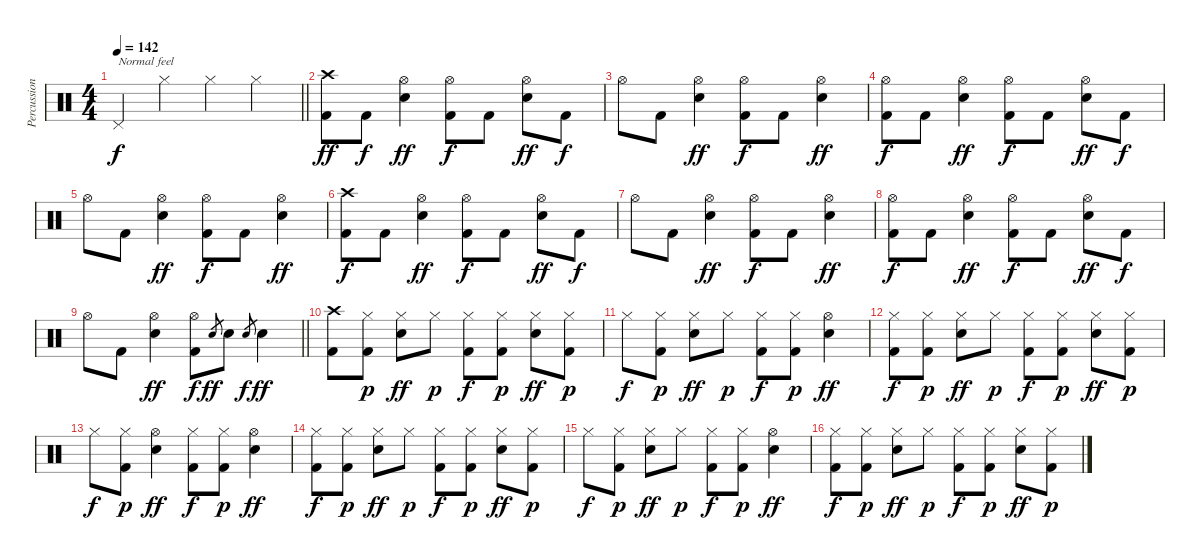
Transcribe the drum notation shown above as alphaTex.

\track ("Percussion" "Percussion") {instrument percussion}
\staff {score}
\articulation defaults
\ts (4 4)
\tempo 142
\clef neutral
\barLineRight lightlight
\ks c "Pedal Hi-Hat (hit)".4{txt "Normal feel" dy f} "Hi-Hat (closed)".4 "Hi-Hat (closed)".4 "Hi-Hat (closed)".4
|
("Crash high (hit)" "Kick (hit) 2").8{dy ff} "Kick (hit) 2".8{dy f} ("Hi-Hat (open)" "Snare (hit) 2").4{dy ff} ("Hi-Hat (open)" "Kick (hit) 2").8{dy f} "Kick (hit) 2".8 ("Hi-Hat (open)" "Snare (hit) 2").8{dy ff} "Kick (hit) 2".8{dy f} |
"Hi-Hat (open)".8 "Kick (hit) 2".8 ("Hi-Hat (open)" "Snare (hit) 2").4{dy ff} ("Hi-Hat (open)" "Kick (hit) 2").8{dy f} "Kick (hit) 2".8 ("Hi-Hat (open)" "Snare (hit) 2").4{dy ff} |
("Hi-Hat (open)" "Kick (hit) 2").8{dy f} "Kick (hit) 2".8 ("Hi-Hat (open)" "Snare (hit) 2").4{dy ff} ("Hi-Hat (open)" "Kick (hit) 2").8{dy f} "Kick (hit) 2".8 ("Hi-Hat (open)" "Snare (hit) 2").8{dy ff} "Kick (hit) 2".8{dy f} |
"Hi-Hat (open)".8 "Kick (hit) 2".8 ("Hi-Hat (open)" "Snare (hit) 2").4{dy ff} ("Hi-Hat (open)" "Kick (hit) 2").8{dy f} "Kick (hit) 2".8 ("Hi-Hat (open)" "Snare (hit) 2").4{dy ff} |
("Crash high (hit)" "Kick (hit) 2").8{dy f} "Kick (hit) 2".8 ("Hi-Hat (open)" "Snare (hit) 2").4{dy ff} ("Hi-Hat (open)" "Kick (hit) 2").8{dy f} "Kick (hit) 2".8 ("Hi-Hat (open)" "Snare (hit) 2").8{dy ff} "Kick (hit) 2".8{dy f} |
"Hi-Hat (open)".8 "Kick (hit) 2".8 ("Hi-Hat (open)" "Snare (hit) 2").4{dy ff} ("Hi-Hat (open)" "Kick (hit) 2").8{dy f} "Kick (hit) 2".8 ("Hi-Hat (open)" "Snare (hit) 2").4{dy ff} |
("Hi-Hat (open)" "Kick (hit) 2").8{dy f} "Kick (hit) 2".8 ("Hi-Hat (open)" "Snare (hit) 2").4{dy ff} ("Hi-Hat (open)" "Kick (hit) 2").8{dy f} "Kick (hit) 2".8 ("Hi-Hat (open)" "Snare (hit) 2").8{dy ff} "Kick (hit) 2".8{dy f} |
\barLineRight lightlight "Hi-Hat (open)".8 "Kick (hit) 2".8
("Hi-Hat (open)" "Snare (hit) 2").4{dy ff} ("Hi-Hat (open)" "Kick (hit) 2").8{dy f} "Snare (hit) 2".8{gr dy ff} "Snare (hit) 2".8 "Snare (hit) 2".8{gr dy f} "Snare (hit) 2".4{dy ff} |
("Crash high (hit)" "Kick (hit) 2").8 ("Hi-Hat (closed)" "Kick (hit) 2").8{dy p} ("Hi-Hat (closed)" "Snare (hit) 2").8{dy ff} "Hi-Hat (closed)".8{dy p} ("Hi-Hat (closed)" "Kick (hit) 2").8{dy f} ("Hi-Hat (closed)" "Kick (hit) 2").8{dy p} ("Hi-Hat (closed)" "Snare (hit) 2").8{dy ff} ("Hi-Hat (closed)" "Kick (hit) 2").8{dy p} |
"Hi-Hat (closed)".8{dy f} ("Hi-Hat (closed)" "Kick (hit) 2").8{dy p} ("Hi-Hat (closed)" "Snare (hit) 2").8{dy ff} "Hi-Hat (closed)".8{dy p} ("Hi-Hat (closed)" "Kick (hit) 2").8{dy f} ("Hi-Hat (closed)" "Kick (hit) 2").8{dy p} ("Hi-Hat (open)" "Snare (hit) 2").4{dy ff} |
("Hi-Hat (closed)" "Kick (hit) 2").8{dy f} ("Hi-Hat (closed)" "Kick (hit) 2").8{dy p} ("Hi-Hat (closed)" "Snare (hit) 2").8{dy ff} "Hi-Hat (closed)".8{dy p} ("Hi-Hat (closed)" "Kick (hit) 2").8{dy f} ("Hi-Hat (closed)" "Kick (hit) 2").8{dy p} ("Hi-Hat (closed)" "Snare (hit) 2").8{dy ff} ("Hi-Hat (closed)" "Kick (hit) 2").8{dy p} |
"Hi-Hat (closed)".8{dy f} ("Hi-Hat (closed)" "Kick (hit) 2").8{dy p} ("Hi-Hat (open)" "Snare (hit) 2").4{dy ff} ("Hi-Hat (closed)" "Kick (hit) 2").8{dy f} ("Hi-Hat (closed)" "Kick (hit) 2").8{dy p} ("Hi-Hat (open)" "Snare (hit) 2").4{dy ff} |
("Hi-Hat (closed)" "Kick (hit) 2").8{dy f} ("Hi-Hat (closed)" "Kick (hit) 2").8{dy p} ("Hi-Hat (closed)" "Snare (hit) 2").8{dy ff} "Hi-Hat (closed)".8{dy p} ("Hi-Hat (closed)" "Kick (hit) 2").8{dy f} ("Hi-Hat (closed)" "Kick (hit) 2").8{dy p} ("Hi-Hat (closed)" "Snare (hit) 2").8{dy ff} ("Hi-Hat (closed)" "Kick (hit) 2").8{dy p} |
"Hi-Hat (closed)".8{dy f} ("Hi-Hat (closed)" "Kick (hit) 2").8{dy p} ("Hi-Hat (closed)" "Snare (hit) 2").8{dy ff} "Hi-Hat (closed)".8{dy p} ("Hi-Hat (closed)" "Kick (hit) 2").8{dy f} ("Hi-Hat (closed)" "Kick (hit) 2").8{dy p} ("Hi-Hat (open)" "Snare (hit) 2").4{dy ff} |
("Hi-Hat (closed)" "Kick (hit) 2").8{dy f} ("Hi-Hat (closed)" "Kick (hit) 2").8{dy p} ("Hi-Hat (closed)" "Snare (hit) 2").8{dy ff} "Hi-Hat (closed)".8{dy p} ("Hi-Hat (closed)" "Kick (hit) 2").8{dy f} ("Hi-Hat (closed)" "Kick (hit) 2").8{dy p} ("Hi-Hat (closed)" "Snare (hit) 2").8{dy ff} ("Hi-Hat (closed)" "Kick (hit) 2").8{dy p}
